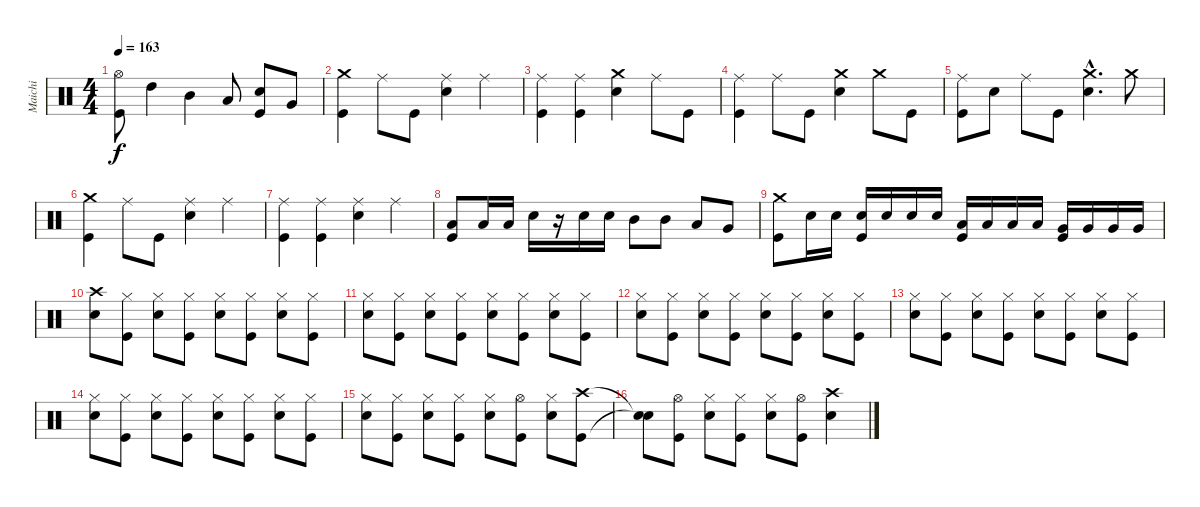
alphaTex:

\track ("Maichi" "Maichi") {instrument percussion}
\staff {score}
\articulation defaults
\ts (4 4)
\tempo 163
\clef neutral
\ks c
("Kick (hit)" "Hi-Hat (open)").8{dy f} "High Tom (hit)".4 "Mid Tom (hit)".4 "Low Tom (hit)".8 ("Electric Snare (hit)" "Kick (hit)").8 "Very Low Tom (hit)".8 |
("Kick (hit)" "Crash medium (hit)").4 "Ride (middle)".8 "Kick (hit)".8 ("Electric Snare (hit)" "Ride (middle)").4 "Ride (middle)".4 |
("Ride (middle)" "Kick (hit)").4 ("Kick (hit)" "Ride (middle)").4 ("Crash medium (hit)" "Electric Snare (hit)").4 "Ride (middle)".8 "Kick (hit)".8 |
("Ride (middle)" "Kick (hit)").4 "Ride (middle)".8 "Kick (hit)".8 ("Crash medium (hit)" "Electric Snare (hit)").4 "Crash medium (hit)".8 "Kick (hit)".8 |
("Ride (middle)" "Kick (hit)").8 "Electric Snare (hit)".8 "Ride (middle)".8 "Kick (hit)".8 ("Electric Snare (hit)"{hac} "Crash medium (hit)"{hac}).4{d} "Crash medium (hit)".8 |
("Kick (hit)" "Crash medium (hit)").4 "Ride (middle)".8 "Kick (hit)".8 ("Electric Snare (hit)" "Ride (middle)").4 "Ride (middle)".4 |
("Kick (hit)" "Ride (middle)").4 ("Ride (middle)" "Kick (hit)").4 ("Ride (middle)" "Electric Snare (hit)").4 "Ride (middle)".4 |
("Kick (hit)" "Low Tom (hit)").8 "Low Tom (hit)".16 "Low Tom (hit)".16 "Electric Snare (hit)".16 r.16 "Electric Snare (hit)".16 "Electric Snare (hit)".16 "Mid Tom (hit)".8 "Mid Tom (hit)".8 "Low Tom (hit)".8 "Very Low Tom (hit)".8 |
("Kick (hit)" "Crash medium (hit)").8 "Electric Snare (hit)".16 "Electric Snare (hit)".16 ("Kick (hit)" "Electric Snare (hit)").16 "Electric Snare (hit)".16 "Electric Snare (hit)".16 "Electric Snare (hit)".16 ("Low Tom (hit)" "Kick (hit)").16 "Low Tom (hit)".16 "Low Tom (hit)".16 "Low Tom (hit)".16 ("Kick (hit)" "Very Low Tom (hit)").16 "Very Low Tom (hit)".16 "Very Low Tom (hit)".16 "Very Low Tom (hit)".16 |
("Crash high (hit)" "Electric Snare (hit)").8 ("Hi-Hat (closed)" "Kick (hit)").8 ("Electric Snare (hit)" "Hi-Hat (closed)").8 ("Hi-Hat (closed)" "Kick (hit)").8 ("Hi-Hat (closed)" "Electric Snare (hit)").8 ("Hi-Hat (closed)" "Kick (hit)").8 ("Electric Snare (hit)" "Hi-Hat (closed)").8 ("Kick (hit)" "Hi-Hat (closed)").8 |
("Electric Snare (hit)" "Hi-Hat (closed)").8 ("Hi-Hat (closed)" "Kick (hit)").8 ("Hi-Hat (closed)" "Electric Snare (hit)").8 ("Kick (hit)" "Hi-Hat (closed)").8 ("Hi-Hat (closed)" "Electric Snare (hit)").8 ("Hi-Hat (closed)" "Kick (hit)").8 ("Electric Snare (hit)" "Hi-Hat (closed)").8 ("Kick (hit)" "Hi-Hat (closed)").8 |
("Hi-Hat (closed)" "Electric Snare (hit)").8 ("Kick (hit)" "Hi-Hat (closed)").8 ("Electric Snare (hit)" "Hi-Hat (closed)").8 ("Kick (hit)" "Hi-Hat (closed)").8 ("Hi-Hat (closed)" "Electric Snare (hit)").8 ("Hi-Hat (closed)" "Kick (hit)").8 ("Hi-Hat (closed)" "Electric Snare (hit)").8 ("Kick (hit)" "Hi-Hat (closed)").8 |
("Electric Snare (hit)" "Hi-Hat (closed)").8 ("Kick (hit)" "Hi-Hat (closed)").8 ("Hi-Hat (closed)" "Electric Snare (hit)").8 ("Hi-Hat (closed)" "Kick (hit)").8 ("Electric Snare (hit)" "Hi-Hat (closed)").8 ("Hi-Hat (closed)" "Kick (hit)").8 ("Hi-Hat (closed)" "Electric Snare (hit)").8 ("Kick (hit)" "Hi-Hat (closed)").8 |
("Electric Snare (hit)" "Hi-Hat (closed)").8 ("Hi-Hat (closed)" "Kick (hit)").8 ("Electric Snare (hit)" "Hi-Hat (closed)").8 ("Hi-Hat (closed)" "Kick (hit)").8 ("Electric Snare (hit)" "Hi-Hat (closed)").8 ("Kick (hit)" "Hi-Hat (closed)").8 ("Hi-Hat (closed)" "Electric Snare (hit)").8 ("Hi-Hat (closed)" "Kick (hit)").8 |
("Hi-Hat (closed)" "Electric Snare (hit)").8 ("Kick (hit)" "Hi-Hat (closed)").8 ("Electric Snare (hit)" "Hi-Hat (closed)").8 ("Hi-Hat (closed)" "Kick (hit)").8 ("Hi-Hat (closed)" "Electric Snare (hit)").8 ("Kick (hit)" "Hi-Hat (open)").8 ("Electric Snare (hit)" "Hi-Hat (closed)").8 ("Crash high (hit)" "Kick (hit)").8 |
("Snare (hit)"{t} "Snare (hit)"{t}).8 ("Kick (hit)" "Hi-Hat (open)").8 ("Electric Snare (hit)" "Hi-Hat (closed)").8 ("Hi-Hat (closed)" "Kick (hit)").8 ("Hi-Hat (closed)" "Electric Snare (hit)").8 ("Kick (hit)" "Hi-Hat (open)").8 ("Electric Snare (hit)" "Crash high (hit)").4
